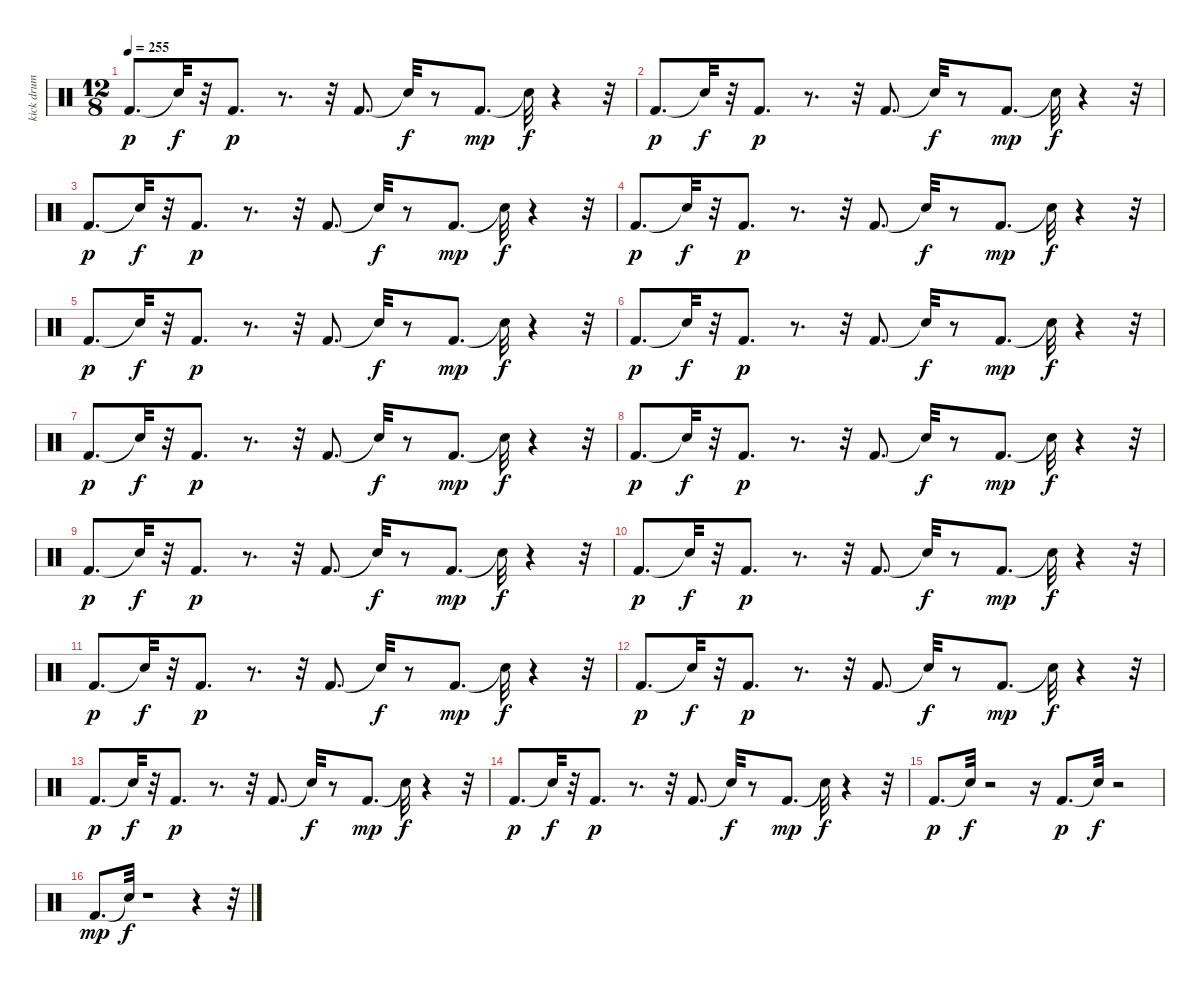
\track ("kick drum           " "kick drum ") {instrument percussion}
\staff {score}
\articulation defaults
\ts (12 8)
\tempo 255
\clef neutral
\ks c "Kick (hit) 2".8{d dy p} "Snare (hit)"{t}.32{dy f}
r.32 "Kick (hit) 2".8{d dy p} r.8{d} r.32 "Kick (hit) 2".8{d} "Snare (hit)"{t}.32{dy f} r.8 "Kick (hit) 2".8{d dy mp} "Snare (hit)"{t}.32{dy f} r.4 r.32 |
"Kick (hit) 2".8{d dy p} "Snare (hit)"{t}.32{dy f} r.32 "Kick (hit) 2".8{d dy p} r.8{d} r.32 "Kick (hit) 2".8{d} "Snare (hit)"{t}.32{dy f} r.8 "Kick (hit) 2".8{d dy mp} "Snare (hit)"{t}.32{dy f} r.4 r.32 |
"Kick (hit) 2".8{d dy p} "Snare (hit)"{t}.32{dy f} r.32 "Kick (hit) 2".8{d dy p} r.8{d} r.32 "Kick (hit) 2".8{d} "Snare (hit)"{t}.32{dy f} r.8 "Kick (hit) 2".8{d dy mp} "Snare (hit)"{t}.32{dy f} r.4 r.32 |
"Kick (hit) 2".8{d dy p} "Snare (hit)"{t}.32{dy f} r.32 "Kick (hit) 2".8{d dy p} r.8{d} r.32 "Kick (hit) 2".8{d} "Snare (hit)"{t}.32{dy f} r.8 "Kick (hit) 2".8{d dy mp} "Snare (hit)"{t}.32{dy f} r.4 r.32 |
"Kick (hit) 2".8{d dy p} "Snare (hit)"{t}.32{dy f} r.32 "Kick (hit) 2".8{d dy p} r.8{d} r.32 "Kick (hit) 2".8{d} "Snare (hit)"{t}.32{dy f} r.8 "Kick (hit) 2".8{d dy mp} "Snare (hit)"{t}.32{dy f} r.4 r.32 |
"Kick (hit) 2".8{d dy p} "Snare (hit)"{t}.32{dy f} r.32 "Kick (hit) 2".8{d dy p} r.8{d} r.32 "Kick (hit) 2".8{d} "Snare (hit)"{t}.32{dy f} r.8 "Kick (hit) 2".8{d dy mp} "Snare (hit)"{t}.32{dy f} r.4 r.32 |
"Kick (hit) 2".8{d dy p} "Snare (hit)"{t}.32{dy f} r.32 "Kick (hit) 2".8{d dy p} r.8{d} r.32 "Kick (hit) 2".8{d} "Snare (hit)"{t}.32{dy f} r.8 "Kick (hit) 2".8{d dy mp} "Snare (hit)"{t}.32{dy f} r.4 r.32 |
"Kick (hit) 2".8{d dy p} "Snare (hit)"{t}.32{dy f} r.32 "Kick (hit) 2".8{d dy p} r.8{d} r.32 "Kick (hit) 2".8{d} "Snare (hit)"{t}.32{dy f} r.8 "Kick (hit) 2".8{d dy mp} "Snare (hit)"{t}.32{dy f} r.4 r.32 |
"Kick (hit) 2".8{d dy p} "Snare (hit)"{t}.32{dy f} r.32 "Kick (hit) 2".8{d dy p} r.8{d} r.32 "Kick (hit) 2".8{d} "Snare (hit)"{t}.32{dy f} r.8 "Kick (hit) 2".8{d dy mp} "Snare (hit)"{t}.32{dy f} r.4 r.32 |
"Kick (hit) 2".8{d dy p} "Snare (hit)"{t}.32{dy f} r.32 "Kick (hit) 2".8{d dy p} r.8{d} r.32 "Kick (hit) 2".8{d} "Snare (hit)"{t}.32{dy f} r.8 "Kick (hit) 2".8{d dy mp} "Snare (hit)"{t}.32{dy f} r.4 r.32 |
"Kick (hit) 2".8{d dy p} "Snare (hit)"{t}.32{dy f} r.32 "Kick (hit) 2".8{d dy p} r.8{d} r.32 "Kick (hit) 2".8{d} "Snare (hit)"{t}.32{dy f} r.8 "Kick (hit) 2".8{d dy mp} "Snare (hit)"{t}.32{dy f} r.4 r.32 |
"Kick (hit) 2".8{d dy p} "Snare (hit)"{t}.32{dy f} r.32 "Kick (hit) 2".8{d dy p} r.8{d} r.32 "Kick (hit) 2".8{d} "Snare (hit)"{t}.32{dy f} r.8 "Kick (hit) 2".8{d dy mp} "Snare (hit)"{t}.32{dy f} r.4 r.32 |
"Kick (hit) 2".8{d dy p} "Snare (hit)"{t}.32{dy f} r.32 "Kick (hit) 2".8{d dy p} r.8{d} r.32 "Kick (hit) 2".8{d} "Snare (hit)"{t}.32{dy f} r.8 "Kick (hit) 2".8{d dy mp} "Snare (hit)"{t}.32{dy f} r.4 r.32 |
"Kick (hit) 2".8{d dy p} "Snare (hit)"{t}.32{dy f} r.32 "Kick (hit) 2".8{d dy p} r.8{d} r.32 "Kick (hit) 2".8{d} "Snare (hit)"{t}.32{dy f} r.8 "Kick (hit) 2".8{d dy mp} "Snare (hit)"{t}.32{dy f} r.4 r.32 |
"Kick (hit) 2".8{d dy p} "Snare (hit)"{t}.32{dy f} r.2 r.16 "Kick (hit) 2".8{d dy p} "Snare (hit)"{t}.32{dy f} r.2 |
"Kick (hit) 2".8{d dy mp} "Snare (hit)"{t}.32{dy f} r.1 r.4 r.32
